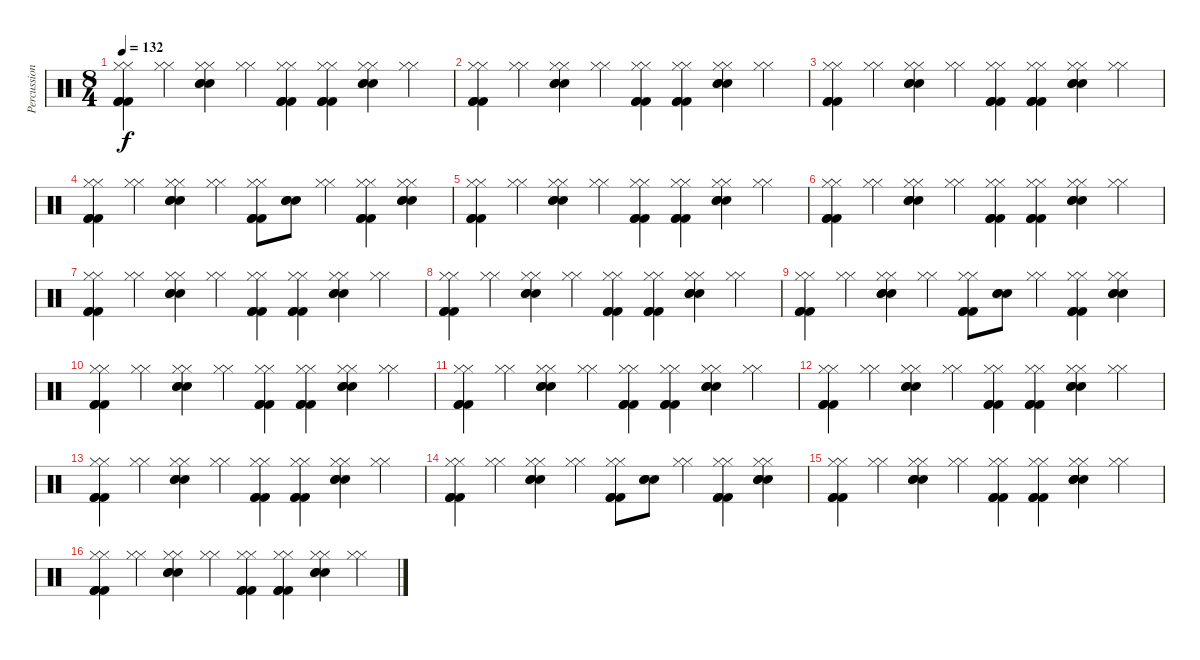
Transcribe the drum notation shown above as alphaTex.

\track ("Percussions" "Percussion") {instrument percussion}
\staff {score}
\articulation defaults
\ts (8 4)
\tempo 132
\clef neutral
\ks c
("Kick (hit) 2" "Kick (hit) 2" "Kick (hit) 2" "Hi-Hat (closed)" "Hi-Hat (closed)").4{dy f} ("Hi-Hat (closed)" "Hi-Hat (closed)").4 ("Electric Snare (hit)" "Electric Snare (hit)" "Electric Snare (hit)" "Hi-Hat (closed)" "Hi-Hat (closed)").4 ("Hi-Hat (closed)" "Hi-Hat (closed)").4 ("Kick (hit) 2" "Kick (hit) 2" "Kick (hit) 2" "Hi-Hat (closed)" "Hi-Hat (closed)").4 ("Kick (hit) 2" "Kick (hit) 2" "Kick (hit) 2" "Hi-Hat (closed)" "Hi-Hat (closed)").4 ("Electric Snare (hit)" "Electric Snare (hit)" "Electric Snare (hit)" "Hi-Hat (closed)" "Hi-Hat (closed)").4 ("Hi-Hat (closed)" "Hi-Hat (closed)").4 |
("Kick (hit) 2" "Kick (hit) 2" "Kick (hit) 2" "Hi-Hat (closed)" "Hi-Hat (closed)").4 ("Hi-Hat (closed)" "Hi-Hat (closed)").4 ("Electric Snare (hit)" "Electric Snare (hit)" "Electric Snare (hit)" "Hi-Hat (closed)" "Hi-Hat (closed)").4 ("Hi-Hat (closed)" "Hi-Hat (closed)").4 ("Kick (hit) 2" "Kick (hit) 2" "Kick (hit) 2" "Hi-Hat (closed)" "Hi-Hat (closed)").4 ("Kick (hit) 2" "Kick (hit) 2" "Kick (hit) 2" "Hi-Hat (closed)" "Hi-Hat (closed)").4 ("Electric Snare (hit)" "Electric Snare (hit)" "Electric Snare (hit)" "Hi-Hat (closed)" "Hi-Hat (closed)").4 ("Hi-Hat (closed)" "Hi-Hat (closed)").4 |
("Kick (hit) 2" "Kick (hit) 2" "Kick (hit) 2" "Hi-Hat (closed)" "Hi-Hat (closed)").4 ("Hi-Hat (closed)" "Hi-Hat (closed)").4 ("Electric Snare (hit)" "Electric Snare (hit)" "Electric Snare (hit)" "Hi-Hat (closed)" "Hi-Hat (closed)").4 ("Hi-Hat (closed)" "Hi-Hat (closed)").4 ("Kick (hit) 2" "Kick (hit) 2" "Kick (hit) 2" "Hi-Hat (closed)" "Hi-Hat (closed)").4 ("Kick (hit) 2" "Kick (hit) 2" "Kick (hit) 2" "Hi-Hat (closed)" "Hi-Hat (closed)").4 ("Electric Snare (hit)" "Electric Snare (hit)" "Electric Snare (hit)" "Hi-Hat (closed)" "Hi-Hat (closed)").4 ("Hi-Hat (closed)" "Hi-Hat (closed)").4 |
("Kick (hit) 2" "Kick (hit) 2" "Kick (hit) 2" "Hi-Hat (closed)" "Hi-Hat (closed)").4 ("Hi-Hat (closed)" "Hi-Hat (closed)").4 ("Electric Snare (hit)" "Electric Snare (hit)" "Electric Snare (hit)" "Hi-Hat (closed)" "Hi-Hat (closed)").4 ("Hi-Hat (closed)" "Hi-Hat (closed)").4 ("Kick (hit) 2" "Kick (hit) 2" "Kick (hit) 2" "Hi-Hat (closed)" "Hi-Hat (closed)").8 ("Electric Snare (hit)" "Electric Snare (hit)" "Electric Snare (hit)").8 ("Hi-Hat (closed)" "Hi-Hat (closed)").4 ("Kick (hit) 2" "Kick (hit) 2" "Kick (hit) 2" "Hi-Hat (closed)" "Hi-Hat (closed)").4 ("Electric Snare (hit)" "Electric Snare (hit)" "Electric Snare (hit)" "Hi-Hat (closed)" "Hi-Hat (closed)").4 |
("Kick (hit) 2" "Kick (hit) 2" "Kick (hit) 2" "Hi-Hat (closed)" "Hi-Hat (closed)").4 ("Hi-Hat (closed)" "Hi-Hat (closed)").4 ("Electric Snare (hit)" "Electric Snare (hit)" "Electric Snare (hit)" "Hi-Hat (closed)" "Hi-Hat (closed)").4 ("Hi-Hat (closed)" "Hi-Hat (closed)").4 ("Kick (hit) 2" "Kick (hit) 2" "Kick (hit) 2" "Hi-Hat (closed)" "Hi-Hat (closed)").4 ("Kick (hit) 2" "Kick (hit) 2" "Kick (hit) 2" "Hi-Hat (closed)" "Hi-Hat (closed)").4 ("Electric Snare (hit)" "Electric Snare (hit)" "Electric Snare (hit)" "Hi-Hat (closed)" "Hi-Hat (closed)").4 ("Hi-Hat (closed)" "Hi-Hat (closed)").4 |
("Kick (hit) 2" "Kick (hit) 2" "Kick (hit) 2" "Hi-Hat (closed)" "Hi-Hat (closed)").4 ("Hi-Hat (closed)" "Hi-Hat (closed)").4 ("Electric Snare (hit)" "Electric Snare (hit)" "Electric Snare (hit)" "Hi-Hat (closed)" "Hi-Hat (closed)").4 ("Hi-Hat (closed)" "Hi-Hat (closed)").4 ("Kick (hit) 2" "Kick (hit) 2" "Kick (hit) 2" "Hi-Hat (closed)" "Hi-Hat (closed)").4 ("Kick (hit) 2" "Kick (hit) 2" "Kick (hit) 2" "Hi-Hat (closed)" "Hi-Hat (closed)").4 ("Electric Snare (hit)" "Electric Snare (hit)" "Electric Snare (hit)" "Hi-Hat (closed)" "Hi-Hat (closed)").4 ("Hi-Hat (closed)" "Hi-Hat (closed)").4 |
("Kick (hit) 2" "Kick (hit) 2" "Kick (hit) 2" "Hi-Hat (closed)" "Hi-Hat (closed)").4 ("Hi-Hat (closed)" "Hi-Hat (closed)").4 ("Electric Snare (hit)" "Electric Snare (hit)" "Electric Snare (hit)" "Hi-Hat (closed)" "Hi-Hat (closed)").4 ("Hi-Hat (closed)" "Hi-Hat (closed)").4 ("Kick (hit) 2" "Kick (hit) 2" "Kick (hit) 2" "Hi-Hat (closed)" "Hi-Hat (closed)").4 ("Kick (hit) 2" "Kick (hit) 2" "Kick (hit) 2" "Hi-Hat (closed)" "Hi-Hat (closed)").4 ("Electric Snare (hit)" "Electric Snare (hit)" "Electric Snare (hit)" "Hi-Hat (closed)" "Hi-Hat (closed)").4 ("Hi-Hat (closed)" "Hi-Hat (closed)").4 |
("Kick (hit) 2" "Kick (hit) 2" "Kick (hit) 2" "Hi-Hat (closed)" "Hi-Hat (closed)").4 ("Hi-Hat (closed)" "Hi-Hat (closed)").4 ("Electric Snare (hit)" "Electric Snare (hit)" "Electric Snare (hit)" "Hi-Hat (closed)" "Hi-Hat (closed)").4 ("Hi-Hat (closed)" "Hi-Hat (closed)").4 ("Kick (hit) 2" "Kick (hit) 2" "Kick (hit) 2" "Hi-Hat (closed)" "Hi-Hat (closed)").4 ("Kick (hit) 2" "Kick (hit) 2" "Kick (hit) 2" "Hi-Hat (closed)" "Hi-Hat (closed)").4 ("Electric Snare (hit)" "Electric Snare (hit)" "Electric Snare (hit)" "Hi-Hat (closed)" "Hi-Hat (closed)").4 ("Hi-Hat (closed)" "Hi-Hat (closed)").4 |
("Kick (hit) 2" "Kick (hit) 2" "Kick (hit) 2" "Hi-Hat (closed)" "Hi-Hat (closed)").4 ("Hi-Hat (closed)" "Hi-Hat (closed)").4 ("Electric Snare (hit)" "Electric Snare (hit)" "Electric Snare (hit)" "Hi-Hat (closed)" "Hi-Hat (closed)").4 ("Hi-Hat (closed)" "Hi-Hat (closed)").4 ("Kick (hit) 2" "Kick (hit) 2" "Kick (hit) 2" "Hi-Hat (closed)" "Hi-Hat (closed)").8 ("Electric Snare (hit)" "Electric Snare (hit)" "Electric Snare (hit)").8 ("Hi-Hat (closed)" "Hi-Hat (closed)").4 ("Kick (hit) 2" "Kick (hit) 2" "Kick (hit) 2" "Hi-Hat (closed)" "Hi-Hat (closed)").4 ("Electric Snare (hit)" "Electric Snare (hit)" "Electric Snare (hit)" "Hi-Hat (closed)" "Hi-Hat (closed)").4 |
("Kick (hit) 2" "Kick (hit) 2" "Kick (hit) 2" "Hi-Hat (closed)" "Hi-Hat (closed)").4 ("Hi-Hat (closed)" "Hi-Hat (closed)").4 ("Electric Snare (hit)" "Electric Snare (hit)" "Electric Snare (hit)" "Hi-Hat (closed)" "Hi-Hat (closed)").4 ("Hi-Hat (closed)" "Hi-Hat (closed)").4 ("Kick (hit) 2" "Kick (hit) 2" "Kick (hit) 2" "Hi-Hat (closed)" "Hi-Hat (closed)").4 ("Kick (hit) 2" "Kick (hit) 2" "Kick (hit) 2" "Hi-Hat (closed)" "Hi-Hat (closed)").4 ("Electric Snare (hit)" "Electric Snare (hit)" "Electric Snare (hit)" "Hi-Hat (closed)" "Hi-Hat (closed)").4 ("Hi-Hat (closed)" "Hi-Hat (closed)").4 |
("Kick (hit) 2" "Kick (hit) 2" "Kick (hit) 2" "Hi-Hat (closed)" "Hi-Hat (closed)").4 ("Hi-Hat (closed)" "Hi-Hat (closed)").4 ("Electric Snare (hit)" "Electric Snare (hit)" "Electric Snare (hit)" "Hi-Hat (closed)" "Hi-Hat (closed)").4 ("Hi-Hat (closed)" "Hi-Hat (closed)").4 ("Kick (hit) 2" "Kick (hit) 2" "Kick (hit) 2" "Hi-Hat (closed)" "Hi-Hat (closed)").4 ("Kick (hit) 2" "Kick (hit) 2" "Kick (hit) 2" "Hi-Hat (closed)" "Hi-Hat (closed)").4 ("Electric Snare (hit)" "Electric Snare (hit)" "Electric Snare (hit)" "Hi-Hat (closed)" "Hi-Hat (closed)").4 ("Hi-Hat (closed)" "Hi-Hat (closed)").4 |
("Kick (hit) 2" "Kick (hit) 2" "Kick (hit) 2" "Hi-Hat (closed)" "Hi-Hat (closed)").4 ("Hi-Hat (closed)" "Hi-Hat (closed)").4 ("Electric Snare (hit)" "Electric Snare (hit)" "Electric Snare (hit)" "Hi-Hat (closed)" "Hi-Hat (closed)").4 ("Hi-Hat (closed)" "Hi-Hat (closed)").4 ("Kick (hit) 2" "Kick (hit) 2" "Kick (hit) 2" "Hi-Hat (closed)" "Hi-Hat (closed)").4 ("Kick (hit) 2" "Kick (hit) 2" "Kick (hit) 2" "Hi-Hat (closed)" "Hi-Hat (closed)").4 ("Electric Snare (hit)" "Electric Snare (hit)" "Electric Snare (hit)" "Hi-Hat (closed)" "Hi-Hat (closed)").4 ("Hi-Hat (closed)" "Hi-Hat (closed)").4 |
("Kick (hit) 2" "Kick (hit) 2" "Kick (hit) 2" "Hi-Hat (closed)" "Hi-Hat (closed)").4 ("Hi-Hat (closed)" "Hi-Hat (closed)").4 ("Electric Snare (hit)" "Electric Snare (hit)" "Electric Snare (hit)" "Hi-Hat (closed)" "Hi-Hat (closed)").4 ("Hi-Hat (closed)" "Hi-Hat (closed)").4 ("Kick (hit) 2" "Kick (hit) 2" "Kick (hit) 2" "Hi-Hat (closed)" "Hi-Hat (closed)").4 ("Kick (hit) 2" "Kick (hit) 2" "Kick (hit) 2" "Hi-Hat (closed)" "Hi-Hat (closed)").4 ("Electric Snare (hit)" "Electric Snare (hit)" "Electric Snare (hit)" "Hi-Hat (closed)" "Hi-Hat (closed)").4 ("Hi-Hat (closed)" "Hi-Hat (closed)").4 |
("Kick (hit) 2" "Kick (hit) 2" "Kick (hit) 2" "Hi-Hat (closed)" "Hi-Hat (closed)").4 ("Hi-Hat (closed)" "Hi-Hat (closed)").4 ("Electric Snare (hit)" "Electric Snare (hit)" "Electric Snare (hit)" "Hi-Hat (closed)" "Hi-Hat (closed)").4 ("Hi-Hat (closed)" "Hi-Hat (closed)").4 ("Kick (hit) 2" "Kick (hit) 2" "Kick (hit) 2" "Hi-Hat (closed)" "Hi-Hat (closed)").8 ("Electric Snare (hit)" "Electric Snare (hit)" "Electric Snare (hit)").8 ("Hi-Hat (closed)" "Hi-Hat (closed)").4 ("Kick (hit) 2" "Kick (hit) 2" "Kick (hit) 2" "Hi-Hat (closed)" "Hi-Hat (closed)").4 ("Electric Snare (hit)" "Electric Snare (hit)" "Electric Snare (hit)" "Hi-Hat (closed)" "Hi-Hat (closed)").4 |
("Kick (hit) 2" "Kick (hit) 2" "Kick (hit) 2" "Hi-Hat (closed)" "Hi-Hat (closed)").4 ("Hi-Hat (closed)" "Hi-Hat (closed)").4 ("Electric Snare (hit)" "Electric Snare (hit)" "Electric Snare (hit)" "Hi-Hat (closed)" "Hi-Hat (closed)").4 ("Hi-Hat (closed)" "Hi-Hat (closed)").4 ("Kick (hit) 2" "Kick (hit) 2" "Kick (hit) 2" "Hi-Hat (closed)" "Hi-Hat (closed)").4 ("Kick (hit) 2" "Kick (hit) 2" "Kick (hit) 2" "Hi-Hat (closed)" "Hi-Hat (closed)").4 ("Electric Snare (hit)" "Electric Snare (hit)" "Electric Snare (hit)" "Hi-Hat (closed)" "Hi-Hat (closed)").4 ("Hi-Hat (closed)" "Hi-Hat (closed)").4 |
("Kick (hit) 2" "Kick (hit) 2" "Kick (hit) 2" "Hi-Hat (closed)" "Hi-Hat (closed)").4 ("Hi-Hat (closed)" "Hi-Hat (closed)").4 ("Electric Snare (hit)" "Electric Snare (hit)" "Electric Snare (hit)" "Hi-Hat (closed)" "Hi-Hat (closed)").4 ("Hi-Hat (closed)" "Hi-Hat (closed)").4 ("Kick (hit) 2" "Kick (hit) 2" "Kick (hit) 2" "Hi-Hat (closed)" "Hi-Hat (closed)").4 ("Kick (hit) 2" "Kick (hit) 2" "Kick (hit) 2" "Hi-Hat (closed)" "Hi-Hat (closed)").4 ("Electric Snare (hit)" "Electric Snare (hit)" "Electric Snare (hit)" "Hi-Hat (closed)" "Hi-Hat (closed)").4 ("Hi-Hat (closed)" "Hi-Hat (closed)").4
